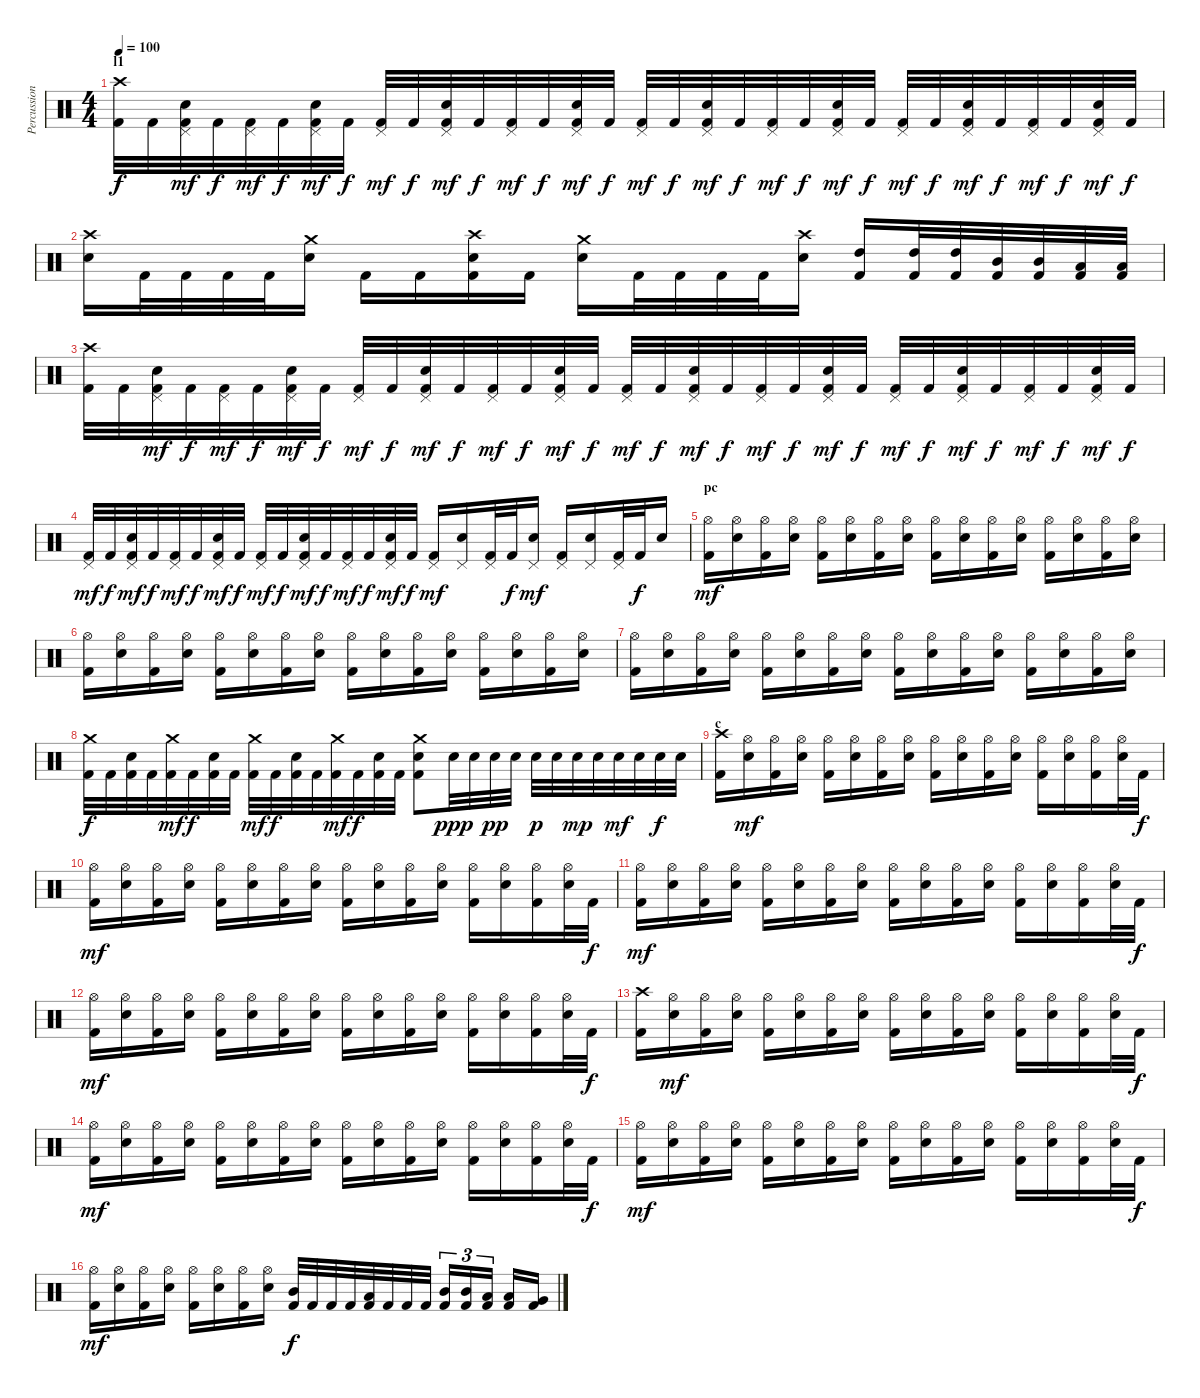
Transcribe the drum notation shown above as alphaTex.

\track ("Percussion" "Percussion") {instrument percussion}
\staff {score}
\articulation defaults
\ts (4 4)
\section ("" "l1")
\tempo 100
\clef neutral
\ks c
("Crash high (hit)" "Kick (hit) 2").32{dy f} "Kick (hit) 2".32 ("Pedal Hi-Hat (hit)" "Electric Snare (hit)" "Kick (hit) 2").32{dy mf} "Kick (hit) 2".32{dy f} ("Pedal Hi-Hat (hit)" "Kick (hit) 2").32{dy mf} "Kick (hit) 2".32{dy f} ("Pedal Hi-Hat (hit)" "Electric Snare (hit)" "Kick (hit) 2").32{dy mf} "Kick (hit) 2".32{dy f} ("Pedal Hi-Hat (hit)" "Kick (hit) 2").32{dy mf} "Kick (hit) 2".32{dy f} ("Pedal Hi-Hat (hit)" "Electric Snare (hit)" "Kick (hit) 2").32{dy mf} "Kick (hit) 2".32{dy f} ("Pedal Hi-Hat (hit)" "Kick (hit) 2").32{dy mf} "Kick (hit) 2".32{dy f} ("Pedal Hi-Hat (hit)" "Electric Snare (hit)" "Kick (hit) 2").32{dy mf} "Kick (hit) 2".32{dy f} ("Pedal Hi-Hat (hit)" "Kick (hit) 2").32{dy mf} "Kick (hit) 2".32{dy f} ("Pedal Hi-Hat (hit)" "Electric Snare (hit)" "Kick (hit) 2").32{dy mf} "Kick (hit) 2".32{dy f} ("Pedal Hi-Hat (hit)" "Kick (hit) 2").32{dy mf} "Kick (hit) 2".32{dy f} ("Pedal Hi-Hat (hit)" "Electric Snare (hit)" "Kick (hit) 2").32{dy mf} "Kick (hit) 2".32{dy f} ("Pedal Hi-Hat (hit)" "Kick (hit) 2").32{dy mf} "Kick (hit) 2".32{dy f} ("Pedal Hi-Hat (hit)" "Electric Snare (hit)" "Kick (hit) 2").32{dy mf} "Kick (hit) 2".32{dy f} ("Pedal Hi-Hat (hit)" "Kick (hit) 2").32{dy mf} "Kick (hit) 2".32{dy f} ("Pedal Hi-Hat (hit)" "Electric Snare (hit)" "Kick (hit) 2").32{dy mf} "Kick (hit) 2".32{dy f} |
("Crash high (hit)" "Electric Snare (hit)").16 "Kick (hit) 2".32 "Kick (hit) 2".32 "Kick (hit) 2".32 "Kick (hit) 2".32 ("Crash medium (hit)" "Electric Snare (hit)").16 "Kick (hit) 2".16 "Kick (hit) 2".16 ("Crash high (hit)" "Electric Snare (hit)" "Kick (hit) 2").16 "Kick (hit) 2".16 ("Crash medium (hit)" "Electric Snare (hit)").16 "Kick (hit) 2".32 "Kick (hit) 2".32 "Kick (hit) 2".32 "Kick (hit) 2".32 ("Crash high (hit)" "Electric Snare (hit)").16 ("High Tom (hit)" "Kick (hit) 2").16 ("High Tom (hit)" "Kick (hit) 2").32 ("High Tom (hit)" "Kick (hit) 2").32 ("Mid Tom (hit)" "Kick (hit) 2").32 ("Mid Tom (hit)" "Kick (hit) 2").32 ("Low Tom (hit)" "Kick (hit) 2").32 ("Low Tom (hit)" "Kick (hit) 2").32 |
("Crash high (hit)" "Kick (hit) 2").32 "Kick (hit) 2".32 ("Pedal Hi-Hat (hit)" "Electric Snare (hit)" "Kick (hit) 2").32{dy mf} "Kick (hit) 2".32{dy f} ("Pedal Hi-Hat (hit)" "Kick (hit) 2").32{dy mf} "Kick (hit) 2".32{dy f} ("Pedal Hi-Hat (hit)" "Electric Snare (hit)" "Kick (hit) 2").32{dy mf} "Kick (hit) 2".32{dy f} ("Pedal Hi-Hat (hit)" "Kick (hit) 2").32{dy mf} "Kick (hit) 2".32{dy f} ("Pedal Hi-Hat (hit)" "Electric Snare (hit)" "Kick (hit) 2").32{dy mf} "Kick (hit) 2".32{dy f} ("Pedal Hi-Hat (hit)" "Kick (hit) 2").32{dy mf} "Kick (hit) 2".32{dy f} ("Pedal Hi-Hat (hit)" "Electric Snare (hit)" "Kick (hit) 2").32{dy mf} "Kick (hit) 2".32{dy f} ("Pedal Hi-Hat (hit)" "Kick (hit) 2").32{dy mf} "Kick (hit) 2".32{dy f} ("Pedal Hi-Hat (hit)" "Electric Snare (hit)" "Kick (hit) 2").32{dy mf} "Kick (hit) 2".32{dy f} ("Pedal Hi-Hat (hit)" "Kick (hit) 2").32{dy mf} "Kick (hit) 2".32{dy f} ("Pedal Hi-Hat (hit)" "Electric Snare (hit)" "Kick (hit) 2").32{dy mf} "Kick (hit) 2".32{dy f} ("Pedal Hi-Hat (hit)" "Kick (hit) 2").32{dy mf} "Kick (hit) 2".32{dy f} ("Pedal Hi-Hat (hit)" "Electric Snare (hit)" "Kick (hit) 2").32{dy mf} "Kick (hit) 2".32{dy f} ("Pedal Hi-Hat (hit)" "Kick (hit) 2").32{dy mf} "Kick (hit) 2".32{dy f} ("Pedal Hi-Hat (hit)" "Electric Snare (hit)" "Kick (hit) 2").32{dy mf} "Kick (hit) 2".32{dy f} |
("Pedal Hi-Hat (hit)" "Kick (hit) 2").32{dy mf} "Kick (hit) 2".32{dy f} ("Pedal Hi-Hat (hit)" "Electric Snare (hit)" "Kick (hit) 2").32{dy mf} "Kick (hit) 2".32{dy f} ("Pedal Hi-Hat (hit)" "Kick (hit) 2").32{dy mf} "Kick (hit) 2".32{dy f} ("Pedal Hi-Hat (hit)" "Electric Snare (hit)" "Kick (hit) 2").32{dy mf} "Kick (hit) 2".32{dy f} ("Pedal Hi-Hat (hit)" "Kick (hit) 2").32{dy mf} "Kick (hit) 2".32{dy f} ("Pedal Hi-Hat (hit)" "Electric Snare (hit)" "Kick (hit) 2").32{dy mf} "Kick (hit) 2".32{dy f} ("Pedal Hi-Hat (hit)" "Kick (hit) 2").32{dy mf} "Kick (hit) 2".32{dy f} ("Pedal Hi-Hat (hit)" "Electric Snare (hit)" "Kick (hit) 2").32{dy mf} "Kick (hit) 2".32{dy f} ("Pedal Hi-Hat (hit)" "Kick (hit) 2").16{dy mf} ("Pedal Hi-Hat (hit)" "Electric Snare (hit)").16 ("Pedal Hi-Hat (hit)" "Kick (hit) 2").32 "Kick (hit) 2".32{dy f} ("Pedal Hi-Hat (hit)" "Electric Snare (hit)").16{dy mf} ("Pedal Hi-Hat (hit)" "Kick (hit) 2").16 ("Pedal Hi-Hat (hit)" "Electric Snare (hit)").16 ("Pedal Hi-Hat (hit)" "Kick (hit) 2").32 "Kick (hit) 2".32{dy f} "Electric Snare (hit)".16 |
\section ("" "pc")
("Hi-Hat (open)" "Kick (hit) 2").16{dy mf} ("Hi-Hat (open)" "Electric Snare (hit)").16 ("Hi-Hat (open)" "Kick (hit) 2").16 ("Hi-Hat (open)" "Electric Snare (hit)").16 ("Hi-Hat (open)" "Kick (hit) 2").16 ("Hi-Hat (open)" "Electric Snare (hit)").16 ("Hi-Hat (open)" "Kick (hit) 2").16 ("Hi-Hat (open)" "Electric Snare (hit)").16 ("Hi-Hat (open)" "Kick (hit) 2").16 ("Hi-Hat (open)" "Electric Snare (hit)").16 ("Hi-Hat (open)" "Kick (hit) 2").16 ("Hi-Hat (open)" "Electric Snare (hit)").16 ("Hi-Hat (open)" "Kick (hit) 2").16 ("Hi-Hat (open)" "Electric Snare (hit)").16 ("Hi-Hat (open)" "Kick (hit) 2").16 ("Hi-Hat (open)" "Electric Snare (hit)").16 |
("Hi-Hat (open)" "Kick (hit) 2").16 ("Hi-Hat (open)" "Electric Snare (hit)").16 ("Hi-Hat (open)" "Kick (hit) 2").16 ("Hi-Hat (open)" "Electric Snare (hit)").16 ("Hi-Hat (open)" "Kick (hit) 2").16 ("Hi-Hat (open)" "Electric Snare (hit)").16 ("Hi-Hat (open)" "Kick (hit) 2").16 ("Hi-Hat (open)" "Electric Snare (hit)").16 ("Hi-Hat (open)" "Kick (hit) 2").16 ("Hi-Hat (open)" "Electric Snare (hit)").16 ("Hi-Hat (open)" "Kick (hit) 2").16 ("Hi-Hat (open)" "Electric Snare (hit)").16 ("Hi-Hat (open)" "Kick (hit) 2").16 ("Hi-Hat (open)" "Electric Snare (hit)").16 ("Hi-Hat (open)" "Kick (hit) 2").16 ("Hi-Hat (open)" "Electric Snare (hit)").16 |
("Hi-Hat (open)" "Kick (hit) 2").16 ("Hi-Hat (open)" "Electric Snare (hit)").16 ("Hi-Hat (open)" "Kick (hit) 2").16 ("Hi-Hat (open)" "Electric Snare (hit)").16 ("Hi-Hat (open)" "Kick (hit) 2").16 ("Hi-Hat (open)" "Electric Snare (hit)").16 ("Hi-Hat (open)" "Kick (hit) 2").16 ("Hi-Hat (open)" "Electric Snare (hit)").16 ("Hi-Hat (open)" "Kick (hit) 2").16 ("Hi-Hat (open)" "Electric Snare (hit)").16 ("Hi-Hat (open)" "Kick (hit) 2").16 ("Hi-Hat (open)" "Electric Snare (hit)").16 ("Hi-Hat (open)" "Kick (hit) 2").16 ("Hi-Hat (open)" "Electric Snare (hit)").16 ("Hi-Hat (open)" "Kick (hit) 2").16 ("Hi-Hat (open)" "Electric Snare (hit)").16 |
("Crash medium (hit)" "Kick (hit) 2").32{dy f} "Kick (hit) 2".32 ("Electric Snare (hit)" "Kick (hit) 2").32 "Kick (hit) 2".32 ("Crash medium (hit)" "Kick (hit) 2").32{dy mf} "Kick (hit) 2".32{dy f} ("Electric Snare (hit)" "Kick (hit) 2").32 "Kick (hit) 2".32 ("Crash medium (hit)" "Kick (hit) 2").32{dy mf} "Kick (hit) 2".32{dy f} ("Electric Snare (hit)" "Kick (hit) 2").32 "Kick (hit) 2".32 ("Crash medium (hit)" "Kick (hit) 2").32{dy mf} "Kick (hit) 2".32{dy f} ("Electric Snare (hit)" "Kick (hit) 2").32 "Kick (hit) 2".32 ("Crash medium (hit)" "Electric Snare (hit)" "Kick (hit) 2").8 "Electric Snare (hit)".32{dy ppp} "Electric Snare (hit)".32 "Electric Snare (hit)".32{dy pp} "Electric Snare (hit)".32 "Electric Snare (hit)".32{dy p} "Electric Snare (hit)".32 "Electric Snare (hit)".32{dy mp} "Electric Snare (hit)".32 "Electric Snare (hit)".32{dy mf} "Electric Snare (hit)".32 "Electric Snare (hit)".32{dy f} "Electric Snare (hit)".32 |
\section ("" "c")
("Crash high (hit)" "Kick (hit) 2").16 ("Hi-Hat (open)" "Electric Snare (hit)").16{dy mf} ("Hi-Hat (open)" "Kick (hit) 2").16 ("Hi-Hat (open)" "Electric Snare (hit)").16 ("Hi-Hat (open)" "Kick (hit) 2").16 ("Hi-Hat (open)" "Electric Snare (hit)").16 ("Hi-Hat (open)" "Kick (hit) 2").16 ("Hi-Hat (open)" "Electric Snare (hit)").16 ("Hi-Hat (open)" "Kick (hit) 2").16 ("Hi-Hat (open)" "Electric Snare (hit)").16 ("Hi-Hat (open)" "Kick (hit) 2").16 ("Hi-Hat (open)" "Electric Snare (hit)").16 ("Hi-Hat (open)" "Kick (hit) 2").16 ("Hi-Hat (open)" "Electric Snare (hit)").16 ("Hi-Hat (open)" "Kick (hit) 2").16 ("Hi-Hat (open)" "Electric Snare (hit)").32 "Kick (hit) 2".32{dy f} |
("Hi-Hat (open)" "Kick (hit) 2").16{dy mf} ("Hi-Hat (open)" "Electric Snare (hit)").16 ("Hi-Hat (open)" "Kick (hit) 2").16 ("Hi-Hat (open)" "Electric Snare (hit)").16 ("Hi-Hat (open)" "Kick (hit) 2").16 ("Hi-Hat (open)" "Electric Snare (hit)").16 ("Hi-Hat (open)" "Kick (hit) 2").16 ("Hi-Hat (open)" "Electric Snare (hit)").16 ("Hi-Hat (open)" "Kick (hit) 2").16 ("Hi-Hat (open)" "Electric Snare (hit)").16 ("Hi-Hat (open)" "Kick (hit) 2").16 ("Hi-Hat (open)" "Electric Snare (hit)").16 ("Hi-Hat (open)" "Kick (hit) 2").16 ("Hi-Hat (open)" "Electric Snare (hit)").16 ("Hi-Hat (open)" "Kick (hit) 2").16 ("Hi-Hat (open)" "Electric Snare (hit)").32 "Kick (hit) 2".32{dy f} |
("Hi-Hat (open)" "Kick (hit) 2").16{dy mf} ("Hi-Hat (open)" "Electric Snare (hit)").16 ("Hi-Hat (open)" "Kick (hit) 2").16 ("Hi-Hat (open)" "Electric Snare (hit)").16 ("Hi-Hat (open)" "Kick (hit) 2").16 ("Hi-Hat (open)" "Electric Snare (hit)").16 ("Hi-Hat (open)" "Kick (hit) 2").16 ("Hi-Hat (open)" "Electric Snare (hit)").16 ("Hi-Hat (open)" "Kick (hit) 2").16 ("Hi-Hat (open)" "Electric Snare (hit)").16 ("Hi-Hat (open)" "Kick (hit) 2").16 ("Hi-Hat (open)" "Electric Snare (hit)").16 ("Hi-Hat (open)" "Kick (hit) 2").16 ("Hi-Hat (open)" "Electric Snare (hit)").16 ("Hi-Hat (open)" "Kick (hit) 2").16 ("Hi-Hat (open)" "Electric Snare (hit)").32 "Kick (hit) 2".32{dy f} |
("Hi-Hat (open)" "Kick (hit) 2").16{dy mf} ("Hi-Hat (open)" "Electric Snare (hit)").16 ("Hi-Hat (open)" "Kick (hit) 2").16 ("Hi-Hat (open)" "Electric Snare (hit)").16 ("Hi-Hat (open)" "Kick (hit) 2").16 ("Hi-Hat (open)" "Electric Snare (hit)").16 ("Hi-Hat (open)" "Kick (hit) 2").16 ("Hi-Hat (open)" "Electric Snare (hit)").16 ("Hi-Hat (open)" "Kick (hit) 2").16 ("Hi-Hat (open)" "Electric Snare (hit)").16 ("Hi-Hat (open)" "Kick (hit) 2").16 ("Hi-Hat (open)" "Electric Snare (hit)").16 ("Hi-Hat (open)" "Kick (hit) 2").16 ("Hi-Hat (open)" "Electric Snare (hit)").16 ("Hi-Hat (open)" "Kick (hit) 2").16 ("Hi-Hat (open)" "Electric Snare (hit)").32 "Kick (hit) 2".32{dy f} |
("Crash high (hit)" "Kick (hit) 2").16 ("Hi-Hat (open)" "Electric Snare (hit)").16{dy mf} ("Hi-Hat (open)" "Kick (hit) 2").16 ("Hi-Hat (open)" "Electric Snare (hit)").16 ("Hi-Hat (open)" "Kick (hit) 2").16 ("Hi-Hat (open)" "Electric Snare (hit)").16 ("Hi-Hat (open)" "Kick (hit) 2").16 ("Hi-Hat (open)" "Electric Snare (hit)").16 ("Hi-Hat (open)" "Kick (hit) 2").16 ("Hi-Hat (open)" "Electric Snare (hit)").16 ("Hi-Hat (open)" "Kick (hit) 2").16 ("Hi-Hat (open)" "Electric Snare (hit)").16 ("Hi-Hat (open)" "Kick (hit) 2").16 ("Hi-Hat (open)" "Electric Snare (hit)").16 ("Hi-Hat (open)" "Kick (hit) 2").16 ("Hi-Hat (open)" "Electric Snare (hit)").32 "Kick (hit) 2".32{dy f} |
("Hi-Hat (open)" "Kick (hit) 2").16{dy mf} ("Hi-Hat (open)" "Electric Snare (hit)").16 ("Hi-Hat (open)" "Kick (hit) 2").16 ("Hi-Hat (open)" "Electric Snare (hit)").16 ("Hi-Hat (open)" "Kick (hit) 2").16 ("Hi-Hat (open)" "Electric Snare (hit)").16 ("Hi-Hat (open)" "Kick (hit) 2").16 ("Hi-Hat (open)" "Electric Snare (hit)").16 ("Hi-Hat (open)" "Kick (hit) 2").16 ("Hi-Hat (open)" "Electric Snare (hit)").16 ("Hi-Hat (open)" "Kick (hit) 2").16 ("Hi-Hat (open)" "Electric Snare (hit)").16 ("Hi-Hat (open)" "Kick (hit) 2").16 ("Hi-Hat (open)" "Electric Snare (hit)").16 ("Hi-Hat (open)" "Kick (hit) 2").16 ("Hi-Hat (open)" "Electric Snare (hit)").32 "Kick (hit) 2".32{dy f} |
("Hi-Hat (open)" "Kick (hit) 2").16{dy mf} ("Hi-Hat (open)" "Electric Snare (hit)").16 ("Hi-Hat (open)" "Kick (hit) 2").16 ("Hi-Hat (open)" "Electric Snare (hit)").16 ("Hi-Hat (open)" "Kick (hit) 2").16 ("Hi-Hat (open)" "Electric Snare (hit)").16 ("Hi-Hat (open)" "Kick (hit) 2").16 ("Hi-Hat (open)" "Electric Snare (hit)").16 ("Hi-Hat (open)" "Kick (hit) 2").16 ("Hi-Hat (open)" "Electric Snare (hit)").16 ("Hi-Hat (open)" "Kick (hit) 2").16 ("Hi-Hat (open)" "Electric Snare (hit)").16 ("Hi-Hat (open)" "Kick (hit) 2").16 ("Hi-Hat (open)" "Electric Snare (hit)").16 ("Hi-Hat (open)" "Kick (hit) 2").16 ("Hi-Hat (open)" "Electric Snare (hit)").32 "Kick (hit) 2".32{dy f} |
("Hi-Hat (open)" "Kick (hit) 2").16{dy mf} ("Hi-Hat (open)" "Electric Snare (hit)").16 ("Hi-Hat (open)" "Kick (hit) 2").16 ("Hi-Hat (open)" "Electric Snare (hit)").16 ("Hi-Hat (open)" "Kick (hit) 2").16 ("Hi-Hat (open)" "Electric Snare (hit)").16 ("Hi-Hat (open)" "Kick (hit) 2").16 ("Hi-Hat (open)" "Electric Snare (hit)").16 ("Mid Tom (hit)" "Kick (hit) 2").32{dy f} "Kick (hit) 2".32 "Kick (hit) 2".32 "Kick (hit) 2".32 ("Low Tom (hit)" "Kick (hit) 2").32 "Kick (hit) 2".32 "Kick (hit) 2".32 "Kick (hit) 2".32 ("Mid Tom (hit)" "Kick (hit) 2").16{tu (3 2)} ("Mid Tom (hit)" "Kick (hit) 2").16{tu (3 2)} ("Low Tom (hit)" "Kick (hit) 2").16{tu (3 2)} ("Low Tom (hit)" "Kick (hit) 2").16 ("Very Low Tom (hit)" "Kick (hit) 2").16
